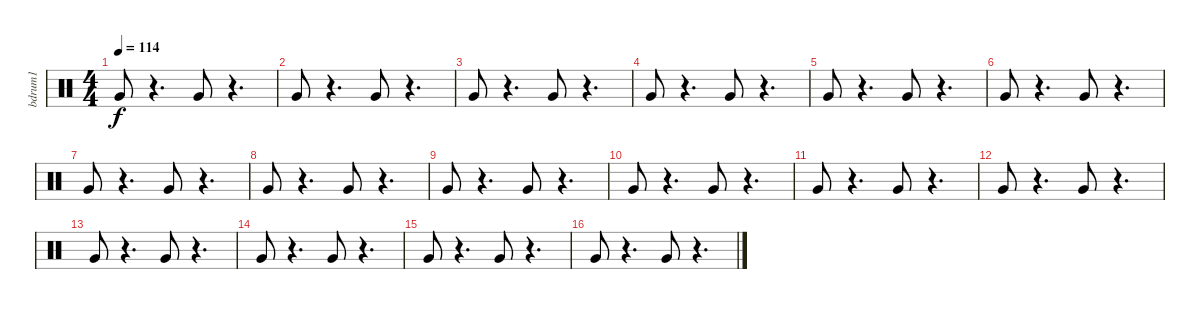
\track ("bdrum1              " "bdrum1    ") {instrument percussion}
\staff {score}
\articulation defaults
\ts (4 4)
\tempo 114
\clef neutral
\ks c "Very Low Tom (hit)".8{dy f}
r.4{d} "Very Low Tom (hit)".8 r.4{d} |
"Very Low Tom (hit)".8 r.4{d} "Very Low Tom (hit)".8 r.4{d} |
"Very Low Tom (hit)".8 r.4{d} "Very Low Tom (hit)".8 r.4{d} |
"Very Low Tom (hit)".8 r.4{d} "Very Low Tom (hit)".8 r.4{d} |
"Very Low Tom (hit)".8 r.4{d} "Very Low Tom (hit)".8 r.4{d} |
"Very Low Tom (hit)".8 r.4{d} "Very Low Tom (hit)".8 r.4{d} |
"Very Low Tom (hit)".8 r.4{d} "Very Low Tom (hit)".8 r.4{d} |
"Very Low Tom (hit)".8 r.4{d} "Very Low Tom (hit)".8 r.4{d} |
"Very Low Tom (hit)".8 r.4{d} "Very Low Tom (hit)".8 r.4{d} |
"Very Low Tom (hit)".8 r.4{d} "Very Low Tom (hit)".8 r.4{d} |
"Very Low Tom (hit)".8 r.4{d} "Very Low Tom (hit)".8 r.4{d} |
"Very Low Tom (hit)".8 r.4{d} "Very Low Tom (hit)".8 r.4{d} |
"Very Low Tom (hit)".8 r.4{d} "Very Low Tom (hit)".8 r.4{d} |
"Very Low Tom (hit)".8 r.4{d} "Very Low Tom (hit)".8 r.4{d} |
"Very Low Tom (hit)".8 r.4{d} "Very Low Tom (hit)".8 r.4{d} |
"Very Low Tom (hit)".8 r.4{d} "Very Low Tom (hit)".8 r.4{d}
